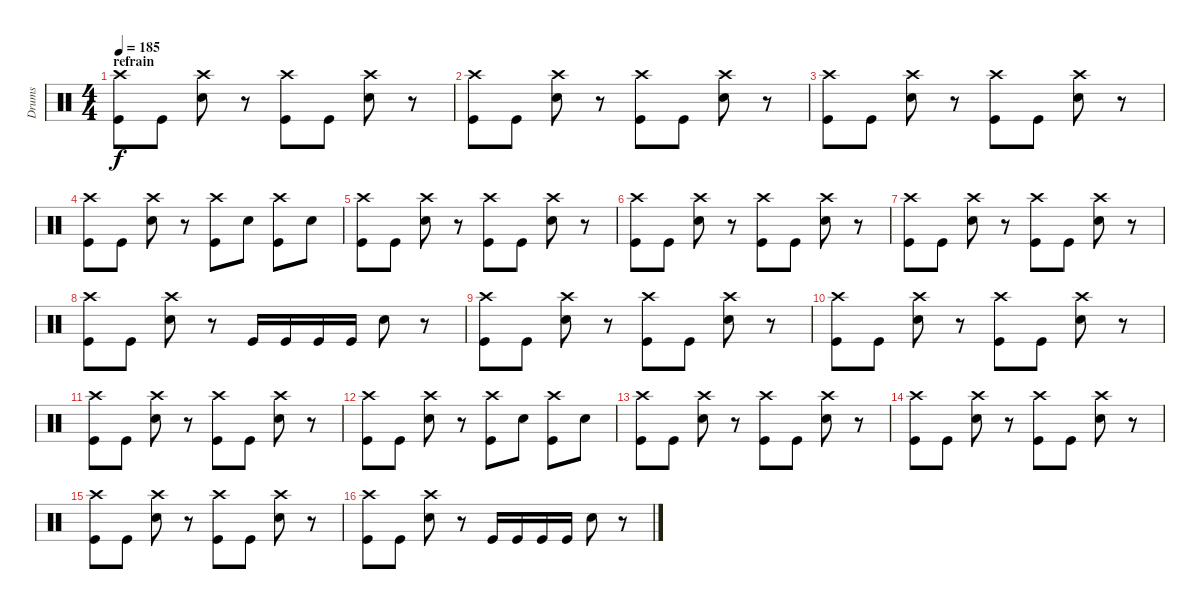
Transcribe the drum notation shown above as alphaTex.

\track ("Drums" "Drums") {instrument percussion}
\staff {score}
\articulation defaults
\ts (4 4)
\section ("" "refrain")
\tempo 185
\clef neutral
\ks c
("Crash high (hit)" "Kick (hit)").8{dy f} "Kick (hit)".8 ("Crash high (hit)" "Electric Snare (hit)").8 r.8 ("Crash high (hit)" "Kick (hit)").8 "Kick (hit)".8 ("Crash high (hit)" "Electric Snare (hit)").8 r.8 |
("Crash high (hit)" "Kick (hit)").8 "Kick (hit)".8 ("Crash high (hit)" "Electric Snare (hit)").8 r.8 ("Crash high (hit)" "Kick (hit)").8 "Kick (hit)".8 ("Crash high (hit)" "Electric Snare (hit)").8 r.8 |
("Crash high (hit)" "Kick (hit)").8 "Kick (hit)".8 ("Crash high (hit)" "Electric Snare (hit)").8 r.8 ("Crash high (hit)" "Kick (hit)").8 "Kick (hit)".8 ("Crash high (hit)" "Electric Snare (hit)").8 r.8 |
("Crash high (hit)" "Kick (hit)").8 "Kick (hit)".8 ("Crash high (hit)" "Electric Snare (hit)").8 r.8 ("Crash high (hit)" "Kick (hit)").8 "Electric Snare (hit)".8 ("Crash high (hit)" "Kick (hit)").8 "Electric Snare (hit)".8 |
("Crash high (hit)" "Kick (hit)").8 "Kick (hit)".8 ("Crash high (hit)" "Electric Snare (hit)").8 r.8 ("Crash high (hit)" "Kick (hit)").8 "Kick (hit)".8 ("Crash high (hit)" "Electric Snare (hit)").8 r.8 |
("Crash high (hit)" "Kick (hit)").8 "Kick (hit)".8 ("Crash high (hit)" "Electric Snare (hit)").8 r.8 ("Crash high (hit)" "Kick (hit)").8 "Kick (hit)".8 ("Crash high (hit)" "Electric Snare (hit)").8 r.8 |
("Crash high (hit)" "Kick (hit)").8 "Kick (hit)".8 ("Crash high (hit)" "Electric Snare (hit)").8 r.8 ("Crash high (hit)" "Kick (hit)").8 "Kick (hit)".8 ("Crash high (hit)" "Electric Snare (hit)").8 r.8 |
("Crash high (hit)" "Kick (hit)").8 "Kick (hit)".8 ("Crash high (hit)" "Electric Snare (hit)").8 r.8 "Kick (hit)".16 "Kick (hit)".16 "Kick (hit)".16 "Kick (hit)".16 "Electric Snare (hit)".8 r.8 |
("Crash high (hit)" "Kick (hit)").8 "Kick (hit)".8 ("Crash high (hit)" "Electric Snare (hit)").8 r.8 ("Crash high (hit)" "Kick (hit)").8 "Kick (hit)".8 ("Crash high (hit)" "Electric Snare (hit)").8 r.8 |
("Crash high (hit)" "Kick (hit)").8 "Kick (hit)".8 ("Crash high (hit)" "Electric Snare (hit)").8 r.8 ("Crash high (hit)" "Kick (hit)").8 "Kick (hit)".8 ("Crash high (hit)" "Electric Snare (hit)").8 r.8 |
("Crash high (hit)" "Kick (hit)").8 "Kick (hit)".8 ("Crash high (hit)" "Electric Snare (hit)").8 r.8 ("Crash high (hit)" "Kick (hit)").8 "Kick (hit)".8 ("Crash high (hit)" "Electric Snare (hit)").8 r.8 |
("Crash high (hit)" "Kick (hit)").8 "Kick (hit)".8 ("Crash high (hit)" "Electric Snare (hit)").8 r.8 ("Crash high (hit)" "Kick (hit)").8 "Electric Snare (hit)".8 ("Crash high (hit)" "Kick (hit)").8 "Electric Snare (hit)".8 |
("Crash high (hit)" "Kick (hit)").8 "Kick (hit)".8 ("Crash high (hit)" "Electric Snare (hit)").8 r.8 ("Crash high (hit)" "Kick (hit)").8 "Kick (hit)".8 ("Crash high (hit)" "Electric Snare (hit)").8 r.8 |
("Crash high (hit)" "Kick (hit)").8 "Kick (hit)".8 ("Crash high (hit)" "Electric Snare (hit)").8 r.8 ("Crash high (hit)" "Kick (hit)").8 "Kick (hit)".8 ("Crash high (hit)" "Electric Snare (hit)").8 r.8 |
("Crash high (hit)" "Kick (hit)").8 "Kick (hit)".8 ("Crash high (hit)" "Electric Snare (hit)").8 r.8 ("Crash high (hit)" "Kick (hit)").8 "Kick (hit)".8 ("Crash high (hit)" "Electric Snare (hit)").8 r.8 |
("Crash high (hit)" "Kick (hit)").8 "Kick (hit)".8 ("Crash high (hit)" "Electric Snare (hit)").8 r.8 "Kick (hit)".16 "Kick (hit)".16 "Kick (hit)".16 "Kick (hit)".16 "Electric Snare (hit)".8 r.8
